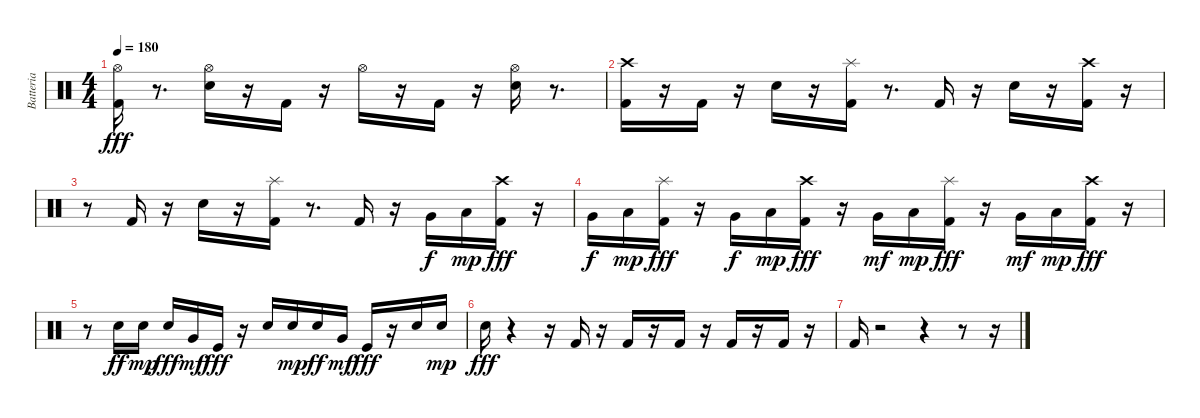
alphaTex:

\track ("Batteria" "Batteria") {instrument percussion}
\staff {score}
\articulation defaults
\ts (4 4)
\tempo 180
\clef neutral
\ks c
("Kick (hit) 2" "Hi-Hat (open)").16{dy fff} r.8{d} ("Electric Snare (hit)" "Hi-Hat (open)").16 r.16 "Kick (hit) 2".16 r.16 "Hi-Hat (open)".16 r.16 "Kick (hit) 2".16 r.16 ("Electric Snare (hit)" "Hi-Hat (open)").16 r.8{d} |
("Kick (hit) 2" "Crash high (hit)").16 r.16 "Kick (hit) 2".16 r.16 "Electric Snare (hit)".16 r.16 ("Kick (hit) 2" "Splash (hit)").16 r.8{d} "Kick (hit) 2".16 r.16 "Electric Snare (hit)".16 r.16 ("Kick (hit) 2" "Crash high (hit)").16 r.16 |
r.8 "Kick (hit) 2".16 r.16 "Electric Snare (hit)".16 r.16 ("Splash (hit)" "Kick (hit) 2").16 r.8{d} "Kick (hit) 2".16 r.16 "Very Low Tom (hit)".16{dy f} "Low Floor Tom (hit)".16{dy mp} ("Crash high (hit)" "Kick (hit) 2").16{dy fff} r.16 |
"Very Low Tom (hit)".16{dy f} "Low Floor Tom (hit)".16{dy mp} ("Splash (hit)" "Kick (hit) 2").16{dy fff} r.16 "Very Low Tom (hit)".16{dy f} "Low Floor Tom (hit)".16{dy mp} ("Crash high (hit)" "Kick (hit) 2").16{dy fff} r.16 "Very Low Tom (hit)".16{dy mf} "Low Floor Tom (hit)".16{dy mp} ("Splash (hit)" "Kick (hit) 2").16{dy fff} r.16 "Very Low Tom (hit)".16{dy mf} "Low Floor Tom (hit)".16{dy mp} ("Crash high (hit)" "Kick (hit) 2").16{dy fff} r.16 |
r.8 "Electric Snare (hit)".16{dy ff} "Electric Snare (hit)".16{dy mp} "Electric Snare (hit)".16{dy fff} "Very Low Tom (hit)".16{dy mf} "Kick (hit)".16{dy fff} r.16 "Electric Snare (hit)".16 "Electric Snare (hit)".16{dy mp} "Electric Snare (hit)".16{dy ff} "Very Low Tom (hit)".16{dy mf} "Kick (hit)".16{dy fff} r.16 "Electric Snare (hit)".16 "Electric Snare (hit)".16{dy mp} |
"Electric Snare (hit)".16{dy fff} r.4 r.16 "Kick (hit) 2".16 r.16 "Kick (hit) 2".16 r.16 "Kick (hit) 2".16 r.16 "Kick (hit) 2".16 r.16 "Kick (hit) 2".16 r.16 |
"Kick (hit) 2".16 r.2 r.4 r.8 r.16
